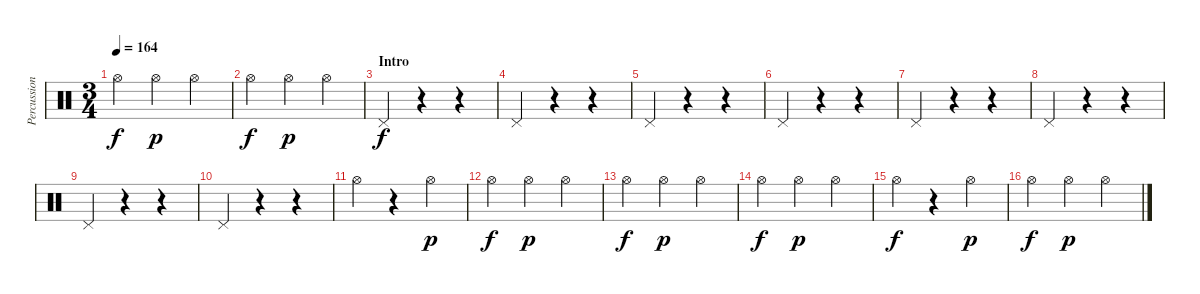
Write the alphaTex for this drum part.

\track ("Percussion" "Percussion") {instrument percussion}
\staff {score}
\articulation defaults
\ts (3 4)
\tempo 164
\clef neutral
\ks c "Hi-Hat (open)".4{dy f} "Hi-Hat (open)".4{dy p} "Hi-Hat (open)".4
|
"Hi-Hat (open)".4{dy f} "Hi-Hat (open)".4{dy p} "Hi-Hat (open)".4 |
\section ("" "Intro")
"Pedal Hi-Hat (hit)".4{dy f} r.4 r.4 |
"Pedal Hi-Hat (hit)".4 r.4 r.4 |
"Pedal Hi-Hat (hit)".4 r.4 r.4 |
"Pedal Hi-Hat (hit)".4 r.4 r.4 |
"Pedal Hi-Hat (hit)".4 r.4 r.4 |
"Pedal Hi-Hat (hit)".4 r.4 r.4 |
"Pedal Hi-Hat (hit)".4 r.4 r.4 |
"Pedal Hi-Hat (hit)".4 r.4 r.4 |
"Hi-Hat (open)".4 r.4 "Hi-Hat (open)".4{dy p} |
"Hi-Hat (open)".4{dy f} "Hi-Hat (open)".4{dy p} "Hi-Hat (open)".4 |
"Hi-Hat (open)".4{dy f} "Hi-Hat (open)".4{dy p} "Hi-Hat (open)".4 |
"Hi-Hat (open)".4{dy f} "Hi-Hat (open)".4{dy p} "Hi-Hat (open)".4 |
"Hi-Hat (open)".4{dy f} r.4 "Hi-Hat (open)".4{dy p} |
"Hi-Hat (open)".4{dy f} "Hi-Hat (open)".4{dy p} "Hi-Hat (open)".4
